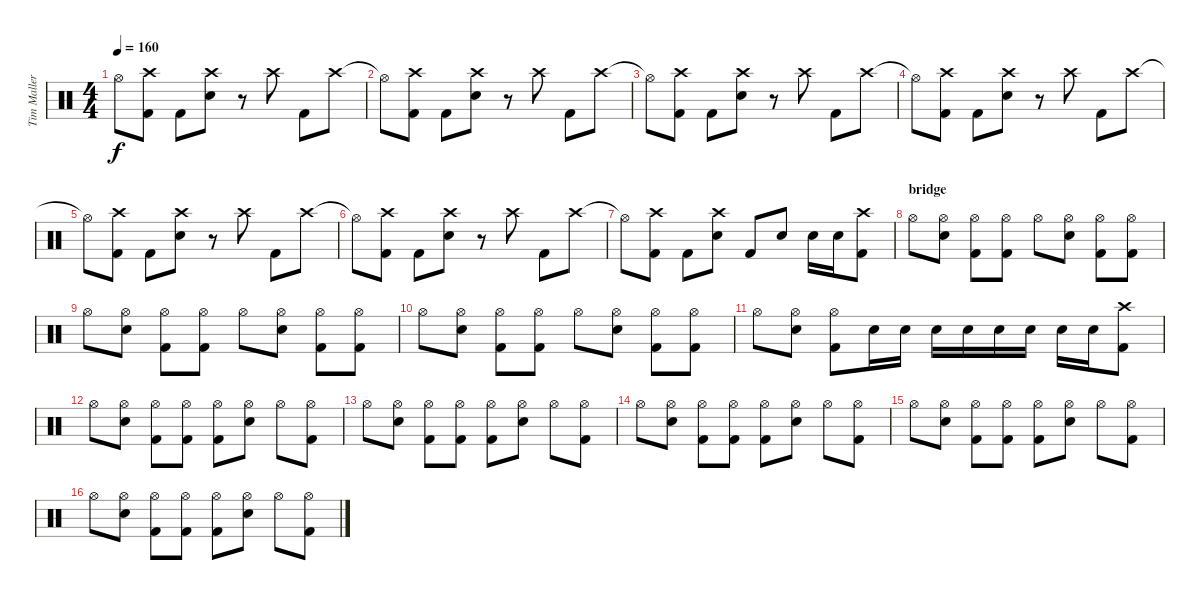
\track ("Tim Mallere" "Tim Maller") {instrument percussion}
\staff {score}
\articulation defaults
\ts (4 4)
\tempo 160
\clef neutral
\ks c "Hi-Hat (open)"{t}.8{dy f}
("Crash high (hit)" "Kick (hit) 2").8 "Kick (hit) 2".8 ("Crash high (hit)" "Electric Snare (hit)").8 r.8 "Crash high (hit)".8 "Kick (hit) 2".8 "Crash high (hit)".8 |
"Hi-Hat (open)"{t}.8 ("Crash high (hit)" "Kick (hit) 2").8 "Kick (hit) 2".8 ("Crash high (hit)" "Electric Snare (hit)").8 r.8 "Crash high (hit)".8 "Kick (hit) 2".8 "Crash high (hit)".8 |
"Hi-Hat (open)"{t}.8 ("Crash high (hit)" "Kick (hit) 2").8 "Kick (hit) 2".8 ("Crash high (hit)" "Electric Snare (hit)").8 r.8 "Crash high (hit)".8 "Kick (hit) 2".8 "Crash high (hit)".8 |
"Hi-Hat (open)"{t}.8 ("Crash high (hit)" "Kick (hit) 2").8 "Kick (hit) 2".8 ("Crash high (hit)" "Electric Snare (hit)").8 r.8 "Crash high (hit)".8 "Kick (hit) 2".8 "Crash high (hit)".8 |
"Hi-Hat (open)"{t}.8 ("Crash high (hit)" "Kick (hit) 2").8 "Kick (hit) 2".8 ("Crash high (hit)" "Electric Snare (hit)").8 r.8 "Crash high (hit)".8 "Kick (hit) 2".8 "Crash high (hit)".8 |
"Hi-Hat (open)"{t}.8 ("Crash high (hit)" "Kick (hit) 2").8 "Kick (hit) 2".8 ("Crash high (hit)" "Electric Snare (hit)").8 r.8 "Crash high (hit)".8 "Kick (hit) 2".8 "Crash high (hit)".8 |
"Hi-Hat (open)"{t}.8 ("Crash high (hit)" "Kick (hit) 2").8 "Kick (hit) 2".8 ("Crash high (hit)" "Electric Snare (hit)").8 "Kick (hit) 2".8 "Electric Snare (hit)".8 "Electric Snare (hit)".16 "Electric Snare (hit)".16 ("Crash high (hit)" "Kick (hit) 2").8 |
\section ("" "bridge")
"Hi-Hat (open)".8 ("Hi-Hat (open)" "Electric Snare (hit)").8 ("Hi-Hat (open)" "Kick (hit) 2").8 ("Hi-Hat (open)" "Kick (hit) 2").8 "Hi-Hat (open)".8 ("Hi-Hat (open)" "Electric Snare (hit)").8 ("Hi-Hat (open)" "Kick (hit) 2").8 ("Hi-Hat (open)" "Kick (hit) 2").8 |
"Hi-Hat (open)".8 ("Hi-Hat (open)" "Electric Snare (hit)").8 ("Hi-Hat (open)" "Kick (hit) 2").8 ("Hi-Hat (open)" "Kick (hit) 2").8 "Hi-Hat (open)".8 ("Hi-Hat (open)" "Electric Snare (hit)").8 ("Hi-Hat (open)" "Kick (hit) 2").8 ("Hi-Hat (open)" "Kick (hit) 2").8 |
"Hi-Hat (open)".8 ("Hi-Hat (open)" "Electric Snare (hit)").8 ("Hi-Hat (open)" "Kick (hit) 2").8 ("Hi-Hat (open)" "Kick (hit) 2").8 "Hi-Hat (open)".8 ("Hi-Hat (open)" "Electric Snare (hit)").8 ("Hi-Hat (open)" "Kick (hit) 2").8 ("Hi-Hat (open)" "Kick (hit) 2").8 |
"Hi-Hat (open)".8 ("Hi-Hat (open)" "Electric Snare (hit)").8 ("Hi-Hat (open)" "Kick (hit) 2").8 "Electric Snare (hit)".16 "Electric Snare (hit)".16 "Electric Snare (hit)".16 "Electric Snare (hit)".16 "Electric Snare (hit)".16 "Electric Snare (hit)".16 "Electric Snare (hit)".16 "Electric Snare (hit)".16 ("Crash high (hit)" "Kick (hit) 2").8 |
"Hi-Hat (open)".8 ("Hi-Hat (open)" "Electric Snare (hit)").8 ("Hi-Hat (open)" "Kick (hit) 2").8 ("Hi-Hat (open)" "Kick (hit) 2").8 ("Hi-Hat (open)" "Kick (hit) 2").8 ("Hi-Hat (open)" "Electric Snare (hit)").8 "Hi-Hat (open)".8 ("Hi-Hat (open)" "Kick (hit) 2").8 |
"Hi-Hat (open)".8 ("Hi-Hat (open)" "Electric Snare (hit)").8 ("Hi-Hat (open)" "Kick (hit) 2").8 ("Hi-Hat (open)" "Kick (hit) 2").8 ("Hi-Hat (open)" "Kick (hit) 2").8 ("Hi-Hat (open)" "Electric Snare (hit)").8 "Hi-Hat (open)".8 ("Hi-Hat (open)" "Kick (hit) 2").8 |
"Hi-Hat (open)".8 ("Hi-Hat (open)" "Electric Snare (hit)").8 ("Hi-Hat (open)" "Kick (hit) 2").8 ("Hi-Hat (open)" "Kick (hit) 2").8 ("Hi-Hat (open)" "Kick (hit) 2").8 ("Hi-Hat (open)" "Electric Snare (hit)").8 "Hi-Hat (open)".8 ("Hi-Hat (open)" "Kick (hit) 2").8 |
"Hi-Hat (open)".8 ("Hi-Hat (open)" "Electric Snare (hit)").8 ("Hi-Hat (open)" "Kick (hit) 2").8 ("Hi-Hat (open)" "Kick (hit) 2").8 ("Hi-Hat (open)" "Kick (hit) 2").8 ("Hi-Hat (open)" "Electric Snare (hit)").8 "Hi-Hat (open)".8 ("Hi-Hat (open)" "Kick (hit) 2").8 |
"Hi-Hat (open)".8 ("Hi-Hat (open)" "Electric Snare (hit)").8 ("Hi-Hat (open)" "Kick (hit) 2").8 ("Hi-Hat (open)" "Kick (hit) 2").8 ("Hi-Hat (open)" "Kick (hit) 2").8 ("Hi-Hat (open)" "Electric Snare (hit)").8 "Hi-Hat (open)".8 ("Hi-Hat (open)" "Kick (hit) 2").8
